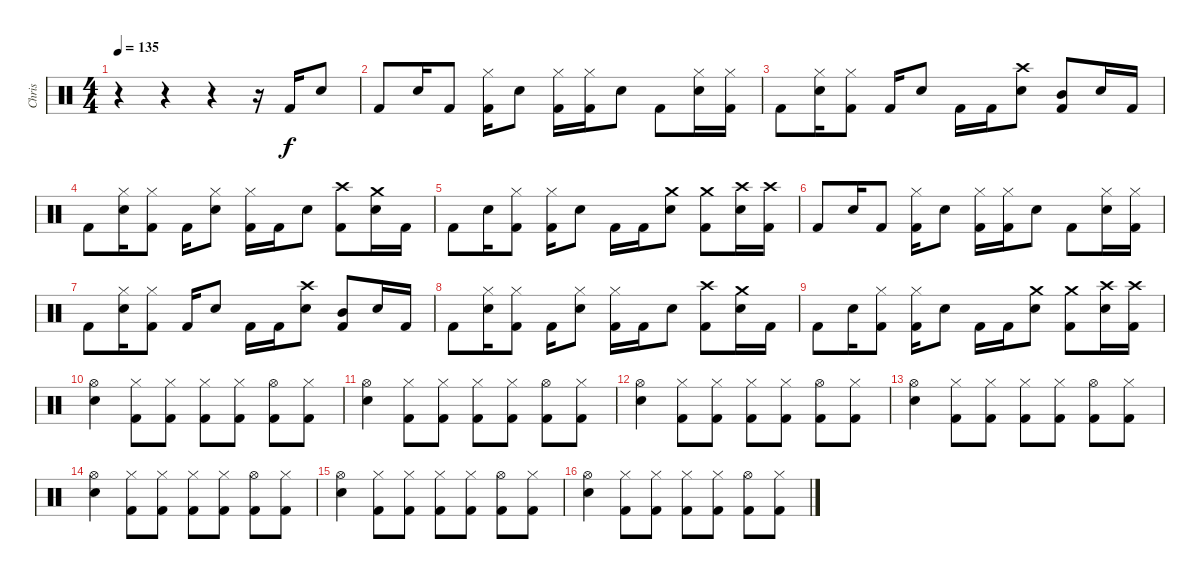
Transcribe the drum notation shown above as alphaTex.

\track ("Chris" "Chris") {instrument percussion}
\staff {score}
\articulation defaults
\ts (4 4)
\tempo 135
\clef neutral
\ks c
r.4{dy f} r.4 r.4 r.16 "Kick (hit) 2".16 "Snare (hit) 2".8 |
"Kick (hit) 2".8 "Snare (hit) 2".16 "Kick (hit) 2".8 ("Hi-Hat (closed)" "Kick (hit) 2").16 "Snare (hit) 2".8 ("Hi-Hat (closed)" "Kick (hit) 2").16 ("Hi-Hat (closed)" "Kick (hit) 2").16 "Snare (hit) 2".8 "Kick (hit) 2".8 ("Hi-Hat (closed)" "Snare (hit) 2").16 ("Hi-Hat (closed)" "Kick (hit) 2").16 |
"Kick (hit) 2".8 ("Hi-Hat (closed)" "Snare (hit) 2").16 ("Hi-Hat (closed)" "Kick (hit) 2").8 "Kick (hit) 2".16 "Snare (hit) 2".8 "Kick (hit) 2".16 "Kick (hit) 2".16 ("Crash high (hit)" "Snare (hit) 2").8 ("Mid Tom (hit)" "Kick (hit) 2").8 "Snare (hit) 2".16 "Kick (hit) 2".16 |
"Kick (hit) 2".8 ("Hi-Hat (closed)" "Snare (hit) 2").16 ("Hi-Hat (closed)" "Kick (hit) 2").8 "Kick (hit) 2".16 ("Hi-Hat (closed)" "Snare (hit) 2").8 ("Hi-Hat (closed)" "Kick (hit) 2").16 "Kick (hit) 2".16 "Snare (hit) 2".8 ("Crash high (hit)" "Kick (hit) 2").8 ("Crash medium (hit)" "Snare (hit) 2").16 "Kick (hit) 2".16 |
"Kick (hit) 2".8 "Snare (hit) 2".16 ("Hi-Hat (closed)" "Kick (hit) 2").8 ("Hi-Hat (closed)" "Kick (hit) 2").16 "Snare (hit) 2".8 "Kick (hit) 2".16 "Kick (hit) 2".16 ("Crash medium (hit)" "Snare (hit) 2").8 ("Crash medium (hit)" "Kick (hit) 2").8 ("Crash high (hit)" "Snare (hit) 2").16 ("Crash high (hit)" "Kick (hit) 2").16 |
"Kick (hit) 2".8 "Snare (hit) 2".16 "Kick (hit) 2".8 ("Hi-Hat (closed)" "Kick (hit) 2").16 "Snare (hit) 2".8 ("Hi-Hat (closed)" "Kick (hit) 2").16 ("Hi-Hat (closed)" "Kick (hit) 2").16 "Snare (hit) 2".8 "Kick (hit) 2".8 ("Hi-Hat (closed)" "Snare (hit) 2").16 ("Hi-Hat (closed)" "Kick (hit) 2").16 |
"Kick (hit) 2".8 ("Hi-Hat (closed)" "Snare (hit) 2").16 ("Hi-Hat (closed)" "Kick (hit) 2").8 "Kick (hit) 2".16 "Snare (hit) 2".8 "Kick (hit) 2".16 "Kick (hit) 2".16 ("Crash high (hit)" "Snare (hit) 2").8 ("Mid Tom (hit)" "Kick (hit) 2").8 "Snare (hit) 2".16 "Kick (hit) 2".16 |
"Kick (hit) 2".8 ("Hi-Hat (closed)" "Snare (hit) 2").16 ("Hi-Hat (closed)" "Kick (hit) 2").8 "Kick (hit) 2".16 ("Hi-Hat (closed)" "Snare (hit) 2").8 ("Hi-Hat (closed)" "Kick (hit) 2").16 "Kick (hit) 2".16 "Snare (hit) 2".8 ("Crash high (hit)" "Kick (hit) 2").8 ("Crash medium (hit)" "Snare (hit) 2").16 "Kick (hit) 2".16 |
"Kick (hit) 2".8 "Snare (hit) 2".16 ("Hi-Hat (closed)" "Kick (hit) 2").8 ("Hi-Hat (closed)" "Kick (hit) 2").16 "Snare (hit) 2".8 "Kick (hit) 2".16 "Kick (hit) 2".16 ("Crash medium (hit)" "Snare (hit) 2").8 ("Crash medium (hit)" "Kick (hit) 2").8 ("Crash high (hit)" "Snare (hit) 2").16 ("Crash high (hit)" "Kick (hit) 2").16 |
("Hi-Hat (open)" "Snare (hit) 2").4 ("Hi-Hat (closed)" "Kick (hit) 2").8 ("Hi-Hat (closed)" "Kick (hit) 2").8 ("Hi-Hat (closed)" "Kick (hit) 2").8 ("Hi-Hat (closed)" "Kick (hit) 2").8 ("Hi-Hat (open)" "Kick (hit) 2").8 ("Hi-Hat (closed)" "Kick (hit) 2").8 |
("Hi-Hat (open)" "Snare (hit) 2").4 ("Hi-Hat (closed)" "Kick (hit) 2").8 ("Hi-Hat (closed)" "Kick (hit) 2").8 ("Hi-Hat (closed)" "Kick (hit) 2").8 ("Hi-Hat (closed)" "Kick (hit) 2").8 ("Hi-Hat (open)" "Kick (hit) 2").8 ("Hi-Hat (closed)" "Kick (hit) 2").8 |
("Hi-Hat (open)" "Snare (hit) 2").4 ("Hi-Hat (closed)" "Kick (hit) 2").8 ("Hi-Hat (closed)" "Kick (hit) 2").8 ("Hi-Hat (closed)" "Kick (hit) 2").8 ("Hi-Hat (closed)" "Kick (hit) 2").8 ("Hi-Hat (open)" "Kick (hit) 2").8 ("Hi-Hat (closed)" "Kick (hit) 2").8 |
("Hi-Hat (open)" "Snare (hit) 2").4 ("Hi-Hat (closed)" "Kick (hit) 2").8 ("Hi-Hat (closed)" "Kick (hit) 2").8 ("Hi-Hat (closed)" "Kick (hit) 2").8 ("Hi-Hat (closed)" "Kick (hit) 2").8 ("Hi-Hat (open)" "Kick (hit) 2").8 ("Hi-Hat (closed)" "Kick (hit) 2").8 |
("Hi-Hat (open)" "Snare (hit) 2").4 ("Hi-Hat (closed)" "Kick (hit) 2").8 ("Hi-Hat (closed)" "Kick (hit) 2").8 ("Hi-Hat (closed)" "Kick (hit) 2").8 ("Hi-Hat (closed)" "Kick (hit) 2").8 ("Hi-Hat (open)" "Kick (hit) 2").8 ("Hi-Hat (closed)" "Kick (hit) 2").8 |
("Hi-Hat (open)" "Snare (hit) 2").4 ("Hi-Hat (closed)" "Kick (hit) 2").8 ("Hi-Hat (closed)" "Kick (hit) 2").8 ("Hi-Hat (closed)" "Kick (hit) 2").8 ("Hi-Hat (closed)" "Kick (hit) 2").8 ("Hi-Hat (open)" "Kick (hit) 2").8 ("Hi-Hat (closed)" "Kick (hit) 2").8 |
("Hi-Hat (open)" "Snare (hit) 2").4 ("Hi-Hat (closed)" "Kick (hit) 2").8 ("Hi-Hat (closed)" "Kick (hit) 2").8 ("Hi-Hat (closed)" "Kick (hit) 2").8 ("Hi-Hat (closed)" "Kick (hit) 2").8 ("Hi-Hat (open)" "Kick (hit) 2").8 ("Hi-Hat (closed)" "Kick (hit) 2").8
